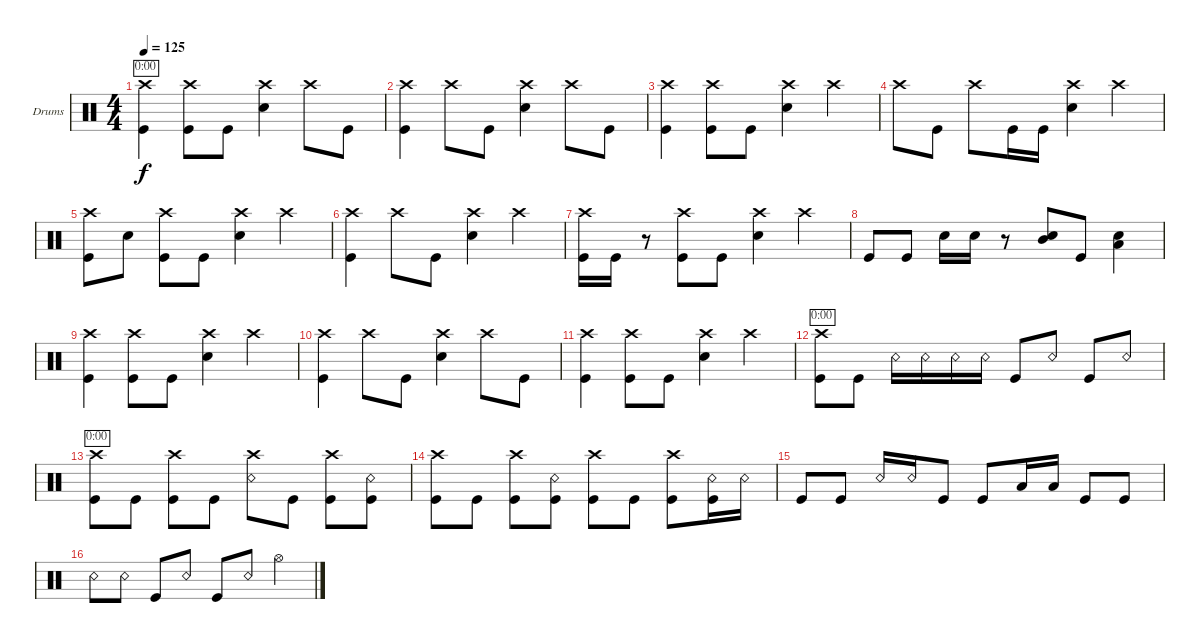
\defaultSystemsLayout 4
\bracketExtendMode groupsimilarinstruments
\firstSystemTrackNameOrientation horizontal
\otherSystemsTrackNameOrientation horizontal
\track ("Drumkit" "Drums") {instrument percussion}
\staff {score}
\articulation defaults
\ts (4 4)
\tempo 125
\clef neutral
\scale
0.333333
\ks c
("Kick (hit)" "Crash high (hit)").4{dy f timer} ("Kick (hit)" "Crash high (hit)").8 "Kick (hit)".8 ("Snare (hit) 2" "Crash high (hit)").4 "Crash high (hit)".8 "Kick (hit)".8 |
\scale
0.333333 ("Crash high (hit)" "Kick (hit)").4 "Crash high (hit)".8 "Kick (hit)".8 ("Snare (hit) 2" "Crash high (hit)").4 "Crash high (hit)".8 "Kick (hit)".8 |
\scale
0.333333 ("Crash high (hit)" "Kick (hit)").4 ("Kick (hit)" "Crash high (hit)").8 "Kick (hit)".8 ("Snare (hit) 2" "Crash high (hit)").4 "Crash high (hit)".4 |
\scale
0.333333 "Crash high (hit)".8 "Kick (hit)".8 "Crash high (hit)".8 "Kick (hit)".16 "Kick (hit)".16 ("Snare (hit) 2" "Crash high (hit)").4 "Crash high (hit)".4 |
\scale
0.333333 ("Kick (hit)" "Crash high (hit)").8 "Snare (hit) 2".8 ("Kick (hit)" "Crash high (hit)").8 "Kick (hit)".8 ("Snare (hit) 2" "Crash high (hit)").4 "Crash high (hit)".4 |
\scale
0.333333 ("Crash high (hit)" "Kick (hit)").4 "Crash high (hit)".8 "Kick (hit)".8 ("Snare (hit) 2" "Crash high (hit)").4 "Crash high (hit)".4 |
\scale
0.333333 ("Crash high (hit)" "Kick (hit)").16 "Kick (hit)".16 r.8 ("Kick (hit)" "Crash high (hit)").8 "Kick (hit)".8 ("Snare (hit) 2" "Crash high (hit)").4 "Crash high (hit)".4 |
\scale
0.333333 "Kick (hit)".8 "Kick (hit)".8 "Snare (hit) 2".16 "Snare (hit) 2".16 r.8 ("Snare (hit) 2" "Mid Tom (hit)").8 "Kick (hit)".8 ("Snare (hit) 2" "Low Tom (hit)").4 |
\scale
0.333333 ("Kick (hit)" "Crash high (hit)").4 ("Kick (hit)" "Crash high (hit)").8 "Kick (hit)".8 ("Snare (hit) 2" "Crash high (hit)").4 "Crash high (hit)".4 |
\scale
0.333333 ("Crash high (hit)" "Kick (hit)").4 "Crash high (hit)".8 "Kick (hit)".8 ("Snare (hit) 2" "Crash high (hit)").4 "Crash high (hit)".8 "Kick (hit)".8 |
\scale
0.333333 ("Crash high (hit)" "Kick (hit)").4 ("Kick (hit)" "Crash high (hit)").8 "Kick (hit)".8 ("Snare (hit) 2" "Crash high (hit)").4 "Crash high (hit)".4 |
\scale
0.333333 ("Kick (hit)" "Crash high (hit)").8{timer} "Kick (hit)".8 "Snare (rim shot)".16 "Snare (rim shot)".16 "Snare (rim shot)".16 "Snare (rim shot)".16 "Kick (hit)".8 "Snare (rim shot)".8 "Kick (hit)".8 "Snare (rim shot)".8 |
\scale
0.333333 ("Kick (hit)" "Crash high (hit)").8{timer} "Kick (hit)".8 ("Kick (hit)" "Crash high (hit)").8 "Kick (hit)".8 ("Crash high (hit)" "Snare (rim shot)").8 "Kick (hit)".8 ("Kick (hit)" "Crash high (hit)").8 ("Kick (hit)" "Snare (rim shot)").8 |
\scale
0.333333 ("Kick (hit)" "Crash high (hit)").8 "Kick (hit)".8 ("Kick (hit)" "Crash high (hit)").8 ("Kick (hit)" "Snare (rim shot)").8 ("Crash high (hit)" "Kick (hit)").8 "Kick (hit)".8 ("Kick (hit)" "Crash high (hit)").8 ("Kick (hit)" "Snare (rim shot)").16 "Snare (rim shot)".16 |
\scale
0.333333 "Kick (hit)".8 "Kick (hit)".8 "Snare (rim shot)".16 "Snare (rim shot)".16 "Kick (hit)".8 "Kick (hit)".8 "Low Tom (hit)".16 "Low Tom (hit)".16 "Kick (hit)".8 "Kick (hit)".8 |
\scale
0.333333 "Snare (rim shot)".8 "Snare (rim shot)".8 "Kick (hit)".8 "Snare (rim shot)".8 "Kick (hit)".8 "Snare (rim shot)".8 "Hi-Hat (open)".4
